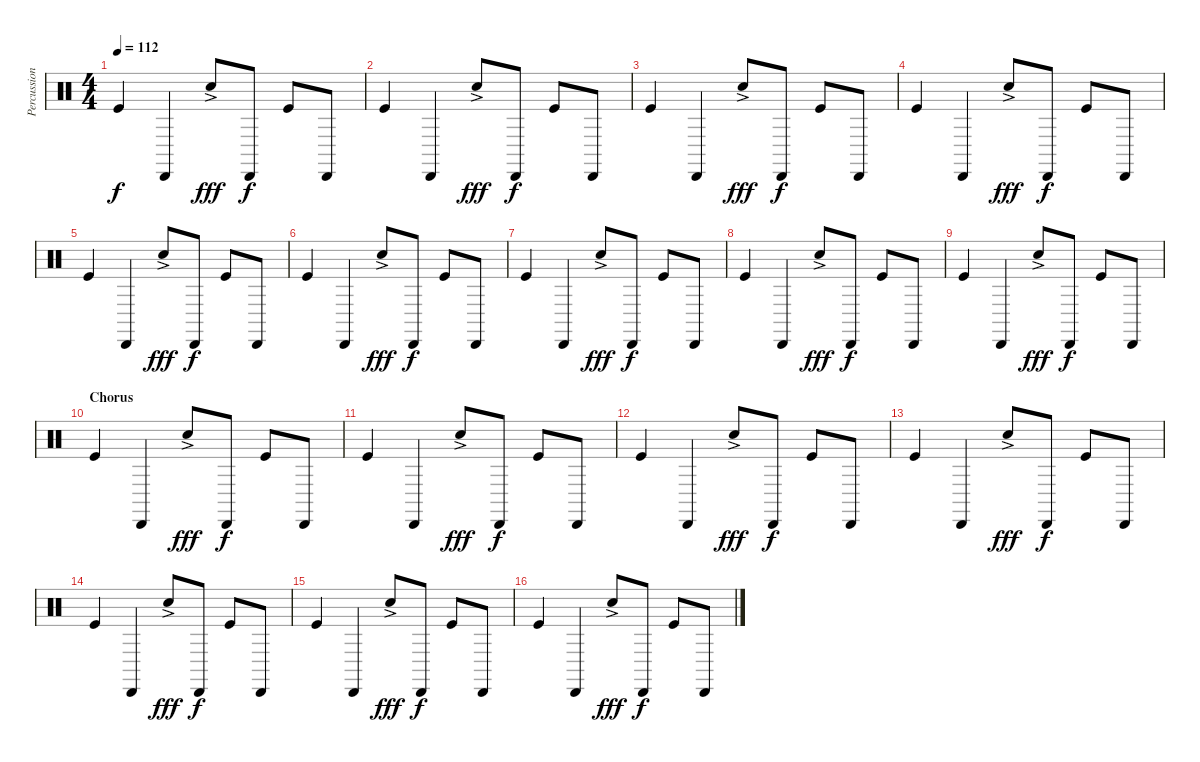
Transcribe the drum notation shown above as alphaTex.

\track ("Percussion" "Percussion") {instrument percussion}
\staff {score}
\articulation defaults
\ts (4 4)
\tempo 112
\clef neutral
\ks c "Kick (hit)".4{dy f} "Cabasa (hit)".4 "Snare (hit) 2"{ac}.8{dy fff} "Cabasa (hit)".8{dy f} "Kick (hit)".8 "Cabasa (hit)".8
|
"Kick (hit)".4 "Cabasa (hit)".4 "Snare (hit) 2"{ac}.8{dy fff} "Cabasa (hit)".8{dy f} "Kick (hit)".8 "Cabasa (hit)".8 |
"Kick (hit)".4 "Cabasa (hit)".4 "Snare (hit) 2"{ac}.8{dy fff} "Cabasa (hit)".8{dy f} "Kick (hit)".8 "Cabasa (hit)".8 |
"Kick (hit)".4 "Cabasa (hit)".4 "Snare (hit) 2"{ac}.8{dy fff} "Cabasa (hit)".8{dy f} "Kick (hit)".8 "Cabasa (hit)".8 |
"Kick (hit)".4 "Cabasa (hit)".4 "Snare (hit) 2"{ac}.8{dy fff} "Cabasa (hit)".8{dy f} "Kick (hit)".8 "Cabasa (hit)".8 |
"Kick (hit)".4 "Cabasa (hit)".4 "Snare (hit) 2"{ac}.8{dy fff} "Cabasa (hit)".8{dy f} "Kick (hit)".8 "Cabasa (hit)".8 |
"Kick (hit)".4 "Cabasa (hit)".4 "Snare (hit) 2"{ac}.8{dy fff} "Cabasa (hit)".8{dy f} "Kick (hit)".8 "Cabasa (hit)".8 |
"Kick (hit)".4 "Cabasa (hit)".4 "Snare (hit) 2"{ac}.8{dy fff} "Cabasa (hit)".8{dy f} "Kick (hit)".8 "Cabasa (hit)".8 |
"Kick (hit)".4 "Cabasa (hit)".4 "Snare (hit) 2"{ac}.8{dy fff} "Cabasa (hit)".8{dy f} "Kick (hit)".8 "Cabasa (hit)".8 |
\section ("" "Chorus")
"Kick (hit)".4 "Cabasa (hit)".4 "Snare (hit) 2"{ac}.8{dy fff} "Cabasa (hit)".8{dy f} "Kick (hit)".8 "Cabasa (hit)".8 |
"Kick (hit)".4 "Cabasa (hit)".4 "Snare (hit) 2"{ac}.8{dy fff} "Cabasa (hit)".8{dy f} "Kick (hit)".8 "Cabasa (hit)".8 |
"Kick (hit)".4 "Cabasa (hit)".4 "Snare (hit) 2"{ac}.8{dy fff} "Cabasa (hit)".8{dy f} "Kick (hit)".8 "Cabasa (hit)".8 |
"Kick (hit)".4 "Cabasa (hit)".4 "Snare (hit) 2"{ac}.8{dy fff} "Cabasa (hit)".8{dy f} "Kick (hit)".8 "Cabasa (hit)".8 |
"Kick (hit)".4 "Cabasa (hit)".4 "Snare (hit) 2"{ac}.8{dy fff} "Cabasa (hit)".8{dy f} "Kick (hit)".8 "Cabasa (hit)".8 |
"Kick (hit)".4 "Cabasa (hit)".4 "Snare (hit) 2"{ac}.8{dy fff} "Cabasa (hit)".8{dy f} "Kick (hit)".8 "Cabasa (hit)".8 |
"Kick (hit)".4 "Cabasa (hit)".4 "Snare (hit) 2"{ac}.8{dy fff} "Cabasa (hit)".8{dy f} "Kick (hit)".8 "Cabasa (hit)".8
